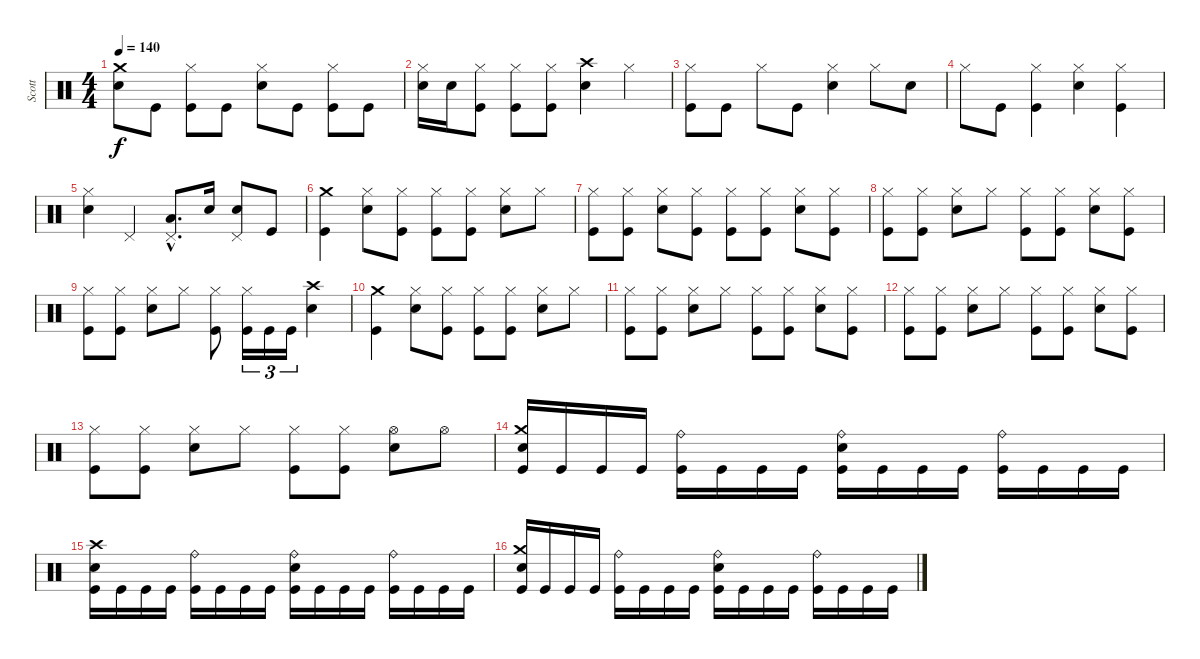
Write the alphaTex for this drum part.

\track ("Scott" "Scott") {instrument percussion}
\staff {score}
\articulation defaults
\ts (4 4)
\tempo 140
\clef neutral
\ks c
("Snare (hit) 2" "Crash medium (hit)").8{dy f} "Kick (hit)".8 ("Kick (hit)" "Hi-Hat (closed)").8 "Kick (hit)".8 ("Snare (hit) 2" "Hi-Hat (closed)").8 "Kick (hit)".8 ("Kick (hit)" "Hi-Hat (closed)").8 "Kick (hit)".8 |
("Snare (hit) 2" "Hi-Hat (closed)").16 "Snare (hit) 2".16 ("Kick (hit)" "Hi-Hat (closed)").8 ("Kick (hit)" "Hi-Hat (closed)").8 ("Kick (hit)" "Hi-Hat (closed)").8 ("Snare (hit) 2" "Crash high (hit)").4 "Hi-Hat (closed)".4 |
("Kick (hit)" "Hi-Hat (closed)").8 "Kick (hit)".8 "Hi-Hat (closed)".8 "Kick (hit)".8 ("Snare (hit) 2" "Hi-Hat (closed)").4 "Hi-Hat (closed)".8 "Snare (hit) 2".8 |
"Hi-Hat (closed)".8 "Kick (hit)".8 ("Kick (hit)" "Hi-Hat (closed)").4 ("Snare (hit) 2" "Hi-Hat (closed)").4 ("Kick (hit)" "Hi-Hat (closed)").4 |
("Snare (hit) 2" "Hi-Hat (closed)").4 "Pedal Hi-Hat (hit)".4 ("Low Tom (hit)"{hac} "Pedal Hi-Hat (hit)"{hac}).8{d} "Snare (hit) 2".16 ("Snare (hit) 2" "Pedal Hi-Hat (hit)").8 "Kick (hit)".8 |
("Kick (hit)" "Crash medium (hit)").4 ("Snare (hit) 2" "Hi-Hat (closed)").8 ("Kick (hit)" "Hi-Hat (closed)").8 ("Kick (hit)" "Hi-Hat (closed)").8 ("Kick (hit)" "Hi-Hat (closed)").8 ("Snare (hit) 2" "Hi-Hat (closed)").8 "Hi-Hat (closed)".8 |
("Kick (hit)" "Hi-Hat (closed)").8 ("Kick (hit)" "Hi-Hat (closed)").8 ("Snare (hit) 2" "Hi-Hat (closed)").8 ("Kick (hit)" "Hi-Hat (closed)").8 ("Kick (hit)" "Hi-Hat (closed)").8 ("Kick (hit)" "Hi-Hat (closed)").8 ("Snare (hit) 2" "Hi-Hat (closed)").8 ("Kick (hit)" "Hi-Hat (closed)").8 |
("Kick (hit)" "Hi-Hat (closed)").8 ("Kick (hit)" "Hi-Hat (closed)").8 ("Snare (hit) 2" "Hi-Hat (closed)").8 "Hi-Hat (closed)".8 ("Kick (hit)" "Hi-Hat (closed)").8 ("Kick (hit)" "Hi-Hat (closed)").8 ("Snare (hit) 2" "Hi-Hat (closed)").8 ("Kick (hit)" "Hi-Hat (closed)").8 |
("Kick (hit)" "Hi-Hat (closed)").8 ("Kick (hit)" "Hi-Hat (closed)").8 ("Snare (hit) 2" "Hi-Hat (closed)").8 "Hi-Hat (closed)".8 ("Kick (hit)" "Hi-Hat (closed)").8 ("Kick (hit)" "Hi-Hat (closed)").16{tu (3 2)} "Kick (hit)".16{tu (3 2)} "Kick (hit)".16{tu (3 2)} ("Snare (hit) 2" "Crash high (hit)").4 |
("Kick (hit)" "Crash medium (hit)").4 ("Snare (hit) 2" "Hi-Hat (closed)").8 ("Kick (hit)" "Hi-Hat (closed)").8 ("Kick (hit)" "Hi-Hat (closed)").8 ("Kick (hit)" "Hi-Hat (closed)").8 ("Snare (hit) 2" "Hi-Hat (closed)").8 "Hi-Hat (closed)".8 |
("Kick (hit)" "Hi-Hat (closed)").8 ("Kick (hit)" "Hi-Hat (closed)").8 ("Snare (hit) 2" "Hi-Hat (closed)").8 "Hi-Hat (closed)".8 ("Kick (hit)" "Hi-Hat (closed)").8 ("Kick (hit)" "Hi-Hat (closed)").8 ("Snare (hit) 2" "Hi-Hat (closed)").8 ("Kick (hit)" "Hi-Hat (closed)").8 |
("Kick (hit)" "Hi-Hat (closed)").8 ("Kick (hit)" "Hi-Hat (closed)").8 ("Snare (hit) 2" "Hi-Hat (closed)").8 "Hi-Hat (closed)".8 ("Kick (hit)" "Hi-Hat (closed)").8 ("Kick (hit)" "Hi-Hat (closed)").8 ("Snare (hit) 2" "Hi-Hat (closed)").8 ("Kick (hit)" "Hi-Hat (closed)").8 |
("Kick (hit)" "Hi-Hat (closed)").8 ("Kick (hit)" "Hi-Hat (closed)").8 ("Snare (hit) 2" "Hi-Hat (closed)").8 "Hi-Hat (closed)".8 ("Kick (hit)" "Hi-Hat (closed)").8 ("Kick (hit)" "Hi-Hat (closed)").8 ("Snare (hit) 2" "Hi-Hat (open)").8 "Hi-Hat (open)".8 |
("Kick (hit)" "Snare (hit) 2" "Crash medium (hit)").16 "Kick (hit)".16 "Kick (hit)".16 "Kick (hit)".16 ("Kick (hit)" "Ride (bell)").16 "Kick (hit)".16 "Kick (hit)".16 "Kick (hit)".16 ("Kick (hit)" "Snare (hit) 2" "Ride (bell)").16 "Kick (hit)".16 "Kick (hit)".16 "Kick (hit)".16 ("Kick (hit)" "Ride (bell)").16 "Kick (hit)".16 "Kick (hit)".16 "Kick (hit)".16 |
("Kick (hit)" "Snare (hit) 2" "Crash high (hit)").16 "Kick (hit)".16 "Kick (hit)".16 "Kick (hit)".16 ("Kick (hit)" "Ride (bell)").16 "Kick (hit)".16 "Kick (hit)".16 "Kick (hit)".16 ("Kick (hit)" "Snare (hit) 2" "Ride (bell)").16 "Kick (hit)".16 "Kick (hit)".16 "Kick (hit)".16 ("Kick (hit)" "Ride (bell)").16 "Kick (hit)".16 "Kick (hit)".16 "Kick (hit)".16 |
("Kick (hit)" "Snare (hit) 2" "Crash medium (hit)").16 "Kick (hit)".16 "Kick (hit)".16 "Kick (hit)".16 ("Kick (hit)" "Ride (bell)").16 "Kick (hit)".16 "Kick (hit)".16 "Kick (hit)".16 ("Kick (hit)" "Snare (hit) 2" "Ride (bell)").16 "Kick (hit)".16 "Kick (hit)".16 "Kick (hit)".16 ("Kick (hit)" "Ride (bell)").16 "Kick (hit)".16 "Kick (hit)".16 "Kick (hit)".16
